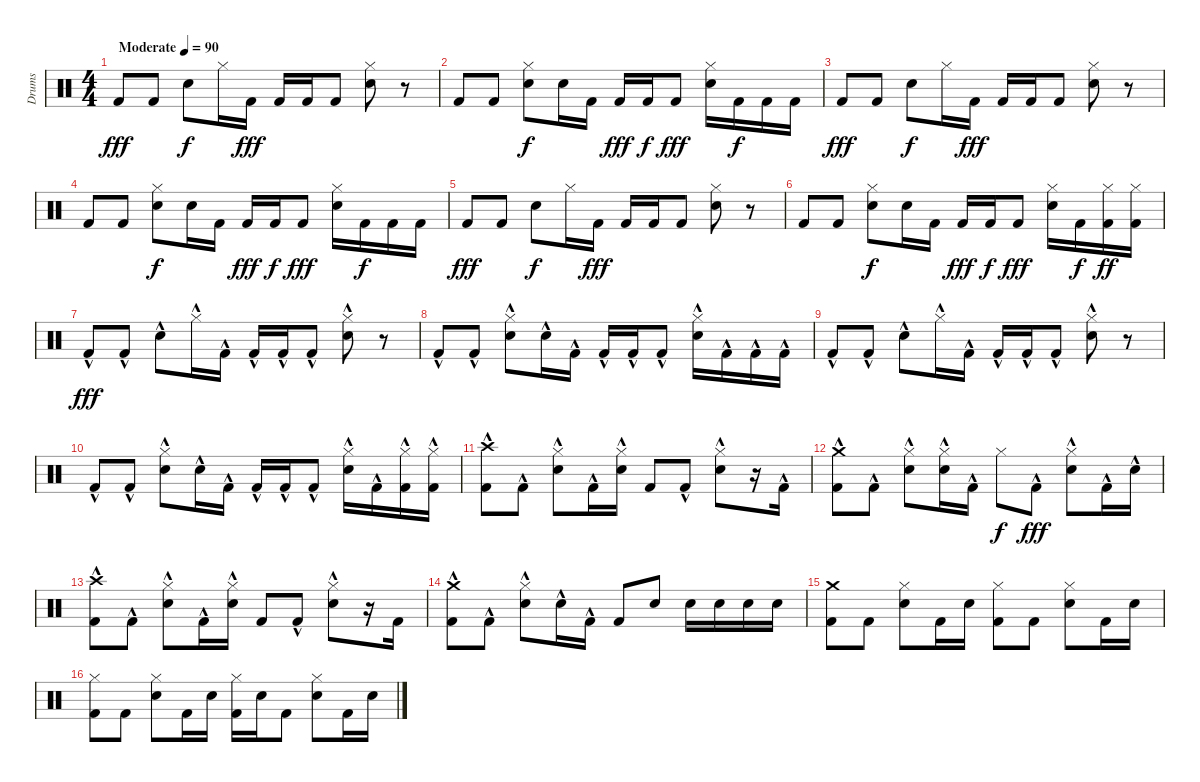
\track ("Drums" "Drums") {instrument percussion}
\staff {score}
\articulation defaults
\ts (4 4)
\tempo (90 "Moderate")
\clef neutral
\ks c "Kick (hit) 2".8{dy fff} "Kick (hit) 2".8 "Snare (hit) 2".8{dy f} "Hi-Hat (closed)".16 "Kick (hit) 2".16{dy fff} "Kick (hit) 2".16 "Kick (hit) 2".16 "Kick (hit) 2".8
("Hi-Hat (closed)" "Snare (hit) 2").8 r.8 |
"Kick (hit) 2".8 "Kick (hit) 2".8 ("Hi-Hat (closed)" "Snare (hit) 2").8{dy f} "Snare (hit) 2".16 "Kick (hit) 2".16 "Kick (hit) 2".16{dy fff} "Kick (hit) 2".16{dy f} "Kick (hit) 2".8{dy fff} ("Hi-Hat (closed)" "Snare (hit) 2").16 "Kick (hit) 2".16{dy f} "Kick (hit) 2".16 "Kick (hit) 2".16 |
"Kick (hit) 2".8{dy fff} "Kick (hit) 2".8 "Snare (hit) 2".8{dy f} "Hi-Hat (closed)".16 "Kick (hit) 2".16{dy fff} "Kick (hit) 2".16 "Kick (hit) 2".16 "Kick (hit) 2".8 ("Hi-Hat (closed)" "Snare (hit) 2").8 r.8 |
"Kick (hit) 2".8 "Kick (hit) 2".8 ("Hi-Hat (closed)" "Snare (hit) 2").8{dy f} "Snare (hit) 2".16 "Kick (hit) 2".16 "Kick (hit) 2".16{dy fff} "Kick (hit) 2".16{dy f} "Kick (hit) 2".8{dy fff} ("Hi-Hat (closed)" "Snare (hit) 2").16 "Kick (hit) 2".16{dy f} "Kick (hit) 2".16 "Kick (hit) 2".16 |
"Kick (hit) 2".8{dy fff} "Kick (hit) 2".8 "Snare (hit) 2".8{dy f} "Hi-Hat (closed)".16 "Kick (hit) 2".16{dy fff} "Kick (hit) 2".16 "Kick (hit) 2".16 "Kick (hit) 2".8 ("Hi-Hat (closed)" "Snare (hit) 2").8 r.8 |
"Kick (hit) 2".8 "Kick (hit) 2".8 ("Hi-Hat (closed)" "Snare (hit) 2").8{dy f} "Snare (hit) 2".16 "Kick (hit) 2".16 "Kick (hit) 2".16{dy fff} "Kick (hit) 2".16{dy f} "Kick (hit) 2".8{dy fff} ("Hi-Hat (closed)" "Snare (hit) 2").16 "Kick (hit) 2".16{dy f} ("Hi-Hat (closed)" "Kick (hit) 2").16{dy ff} ("Hi-Hat (closed)" "Kick (hit) 2").16 |
"Kick (hit) 2"{hac}.8{dy fff} "Kick (hit) 2"{hac}.8 "Snare (hit) 2"{hac}.8 "Hi-Hat (closed)"{hac}.16 "Kick (hit) 2"{hac}.16 "Kick (hit) 2"{hac}.16 "Kick (hit) 2"{hac}.16 "Kick (hit) 2"{hac}.8 ("Hi-Hat (closed)"{hac} "Snare (hit) 2"{hac}).8 r.8 |
"Kick (hit) 2"{hac}.8 "Kick (hit) 2"{hac}.8 ("Hi-Hat (closed)"{hac} "Snare (hit) 2"{hac}).8 "Snare (hit) 2"{hac}.16 "Kick (hit) 2"{hac}.16 "Kick (hit) 2"{hac}.16 "Kick (hit) 2"{hac}.16 "Kick (hit) 2"{hac}.8 ("Hi-Hat (closed)"{hac} "Snare (hit) 2"{hac}).16 "Kick (hit) 2"{hac}.16 "Kick (hit) 2"{hac}.16 "Kick (hit) 2"{hac}.16 |
"Kick (hit) 2"{hac}.8 "Kick (hit) 2"{hac}.8 "Snare (hit) 2"{hac}.8 "Hi-Hat (closed)"{hac}.16 "Kick (hit) 2"{hac}.16 "Kick (hit) 2"{hac}.16 "Kick (hit) 2"{hac}.16 "Kick (hit) 2"{hac}.8 ("Hi-Hat (closed)"{hac} "Snare (hit) 2"{hac}).8 r.8 |
"Kick (hit) 2"{hac}.8 "Kick (hit) 2"{hac}.8 ("Hi-Hat (closed)"{hac} "Snare (hit) 2"{hac}).8 "Snare (hit) 2"{hac}.16 "Kick (hit) 2"{hac}.16 "Kick (hit) 2"{hac}.16 "Kick (hit) 2"{hac}.16 "Kick (hit) 2"{hac}.8 ("Hi-Hat (closed)"{hac} "Snare (hit) 2"{hac}).16 "Kick (hit) 2"{hac}.16 ("Hi-Hat (closed)"{hac} "Kick (hit) 2"{hac}).16 ("Hi-Hat (closed)"{hac} "Kick (hit) 2"{hac}).16 |
("Crash high (hit)"{hac} "Kick (hit) 2"{hac}).8 "Kick (hit) 2"{hac}.8 ("Hi-Hat (closed)"{hac} "Snare (hit) 2"{hac}).8 "Kick (hit) 2"{hac}.16 ("Hi-Hat (closed)" "Snare (hit) 2"{hac}).16 "Kick (hit) 2".8 "Kick (hit) 2"{hac}.8 ("Hi-Hat (closed)"{hac} "Snare (hit) 2"{hac}).8 r.16 "Kick (hit) 2"{hac}.16 |
("Crash medium (hit)"{hac} "Kick (hit) 2"{hac}).8 "Kick (hit) 2"{hac}.8 ("Hi-Hat (closed)"{hac} "Snare (hit) 2"{hac}).8 ("Hi-Hat (closed)" "Snare (hit) 2"{hac}).16 "Kick (hit) 2"{hac}.16 "Hi-Hat (closed)".8{dy f} "Kick (hit) 2"{hac}.8{dy fff} ("Hi-Hat (closed)"{hac} "Snare (hit) 2"{hac}).8 "Kick (hit) 2"{hac}.16 "Snare (hit) 2"{hac}.16 |
("Crash high (hit)"{hac} "Kick (hit) 2"{hac}).8 "Kick (hit) 2"{hac}.8 ("Hi-Hat (closed)"{hac} "Snare (hit) 2"{hac}).8 "Kick (hit) 2"{hac}.16 ("Hi-Hat (closed)" "Snare (hit) 2"{hac}).16 "Kick (hit) 2".8 "Kick (hit) 2"{hac}.8 ("Hi-Hat (closed)"{hac} "Snare (hit) 2"{hac}).8 r.16 "Kick (hit) 2".16 |
("Crash medium (hit)"{hac} "Kick (hit) 2"{hac}).8 "Kick (hit) 2"{hac}.8 ("Hi-Hat (closed)"{hac} "Snare (hit) 2"{hac}).8 "Snare (hit) 2"{hac}.16 "Kick (hit) 2"{hac}.16 "Kick (hit) 2".8 "Snare (hit) 2".8{volume 16} "Snare (hit) 2".16 "Snare (hit) 2".16 "Snare (hit) 2".16 "Snare (hit) 2".16 |
("Crash medium (hit)" "Kick (hit) 2").8 "Kick (hit) 2".8 ("Hi-Hat (closed)" "Snare (hit) 2").8 "Kick (hit) 2".16 "Snare (hit) 2".16 ("Hi-Hat (closed)" "Kick (hit) 2").8 "Kick (hit) 2".8 ("Hi-Hat (closed)" "Snare (hit) 2").8 "Kick (hit) 2".16 "Snare (hit) 2".16 |
("Hi-Hat (closed)" "Kick (hit) 2").8 "Kick (hit) 2".8 ("Hi-Hat (closed)" "Snare (hit) 2").8 "Kick (hit) 2".16 "Snare (hit) 2".16 ("Hi-Hat (closed)" "Kick (hit) 2").16 "Snare (hit) 2".16 "Kick (hit) 2".8 ("Hi-Hat (closed)" "Snare (hit) 2").8 "Kick (hit) 2".16 "Snare (hit) 2".16
